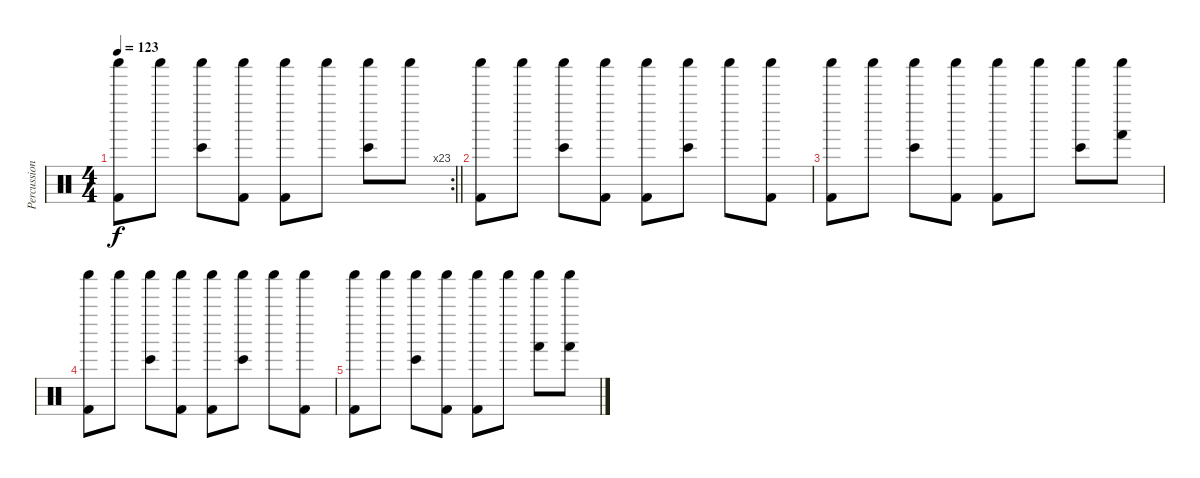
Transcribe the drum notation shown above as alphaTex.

\track ("Percussion" "Percussion") {instrument percussion}
\staff {score}
\articulation defaults
\rc 23
\ts (4 4)
\tempo 123
\clef neutral
\barLineRight lightlight
\ks c
("Shaker (hit)" "Kick (hit) 2").8{dy f} "Shaker (hit)".8 ("Shaker (hit)" "Bongo High (hit)").8 ("Shaker (hit)" "Kick (hit) 2").8 ("Shaker (hit)" "Kick (hit) 2").8 "Shaker (hit)".8 ("Shaker (hit)" "Bongo High (hit)").8 "Shaker (hit)".8 |
("Shaker (hit)" "Kick (hit) 2").8 "Shaker (hit)".8 ("Shaker (hit)" "Bongo High (hit)").8 ("Shaker (hit)" "Kick (hit) 2").8 ("Shaker (hit)" "Kick (hit) 2").8 ("Shaker (hit)" "Bongo High (hit)").8 "Shaker (hit)".8 ("Shaker (hit)" "Kick (hit) 2").8 |
("Shaker (hit)" "Kick (hit) 2").8 "Shaker (hit)".8 ("Shaker (hit)" "Bongo High (hit)").8 ("Shaker (hit)" "Kick (hit) 2").8 ("Shaker (hit)" "Kick (hit) 2").8 "Shaker (hit)".8 ("Shaker (hit)" "Bongo High (hit)").8 ("Shaker (hit)" "Hand (hit)").8 |
("Shaker (hit)" "Kick (hit) 2").8 "Shaker (hit)".8 ("Shaker (hit)" "Bongo High (hit)").8 ("Shaker (hit)" "Kick (hit) 2").8 ("Shaker (hit)" "Kick (hit) 2").8 ("Shaker (hit)" "Bongo High (hit)").8 "Shaker (hit)".8 ("Shaker (hit)" "Kick (hit) 2").8 |
("Shaker (hit)" "Kick (hit) 2").8 "Shaker (hit)".8 ("Shaker (hit)" "Bongo High (hit)").8 ("Shaker (hit)" "Kick (hit) 2").8 ("Shaker (hit)" "Kick (hit) 2").8 "Shaker (hit)".8 ("Shaker (hit)" "Hand (hit)").8 ("Shaker (hit)" "Hand (hit)").8
